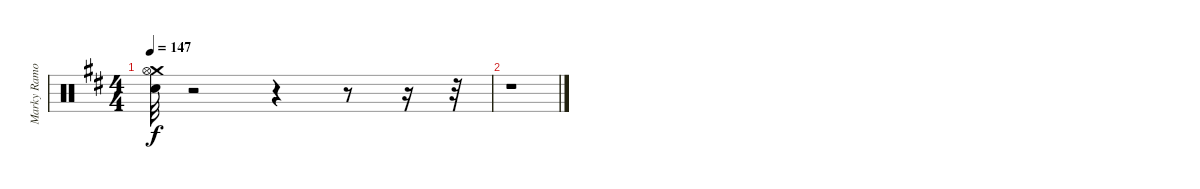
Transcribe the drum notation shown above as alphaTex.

\track ("Marky Ramone" "Marky Ramo") {instrument percussion}
\staff {score}
\articulation defaults
\ts (4 4)
\tempo 147
\clef neutral
\ks d
("Electric Snare (hit)" "Crash medium (hit)" "Hi-Hat (open)").32{dy f} r.2 r.4 r.8 r.16 r.32 |
r.1
